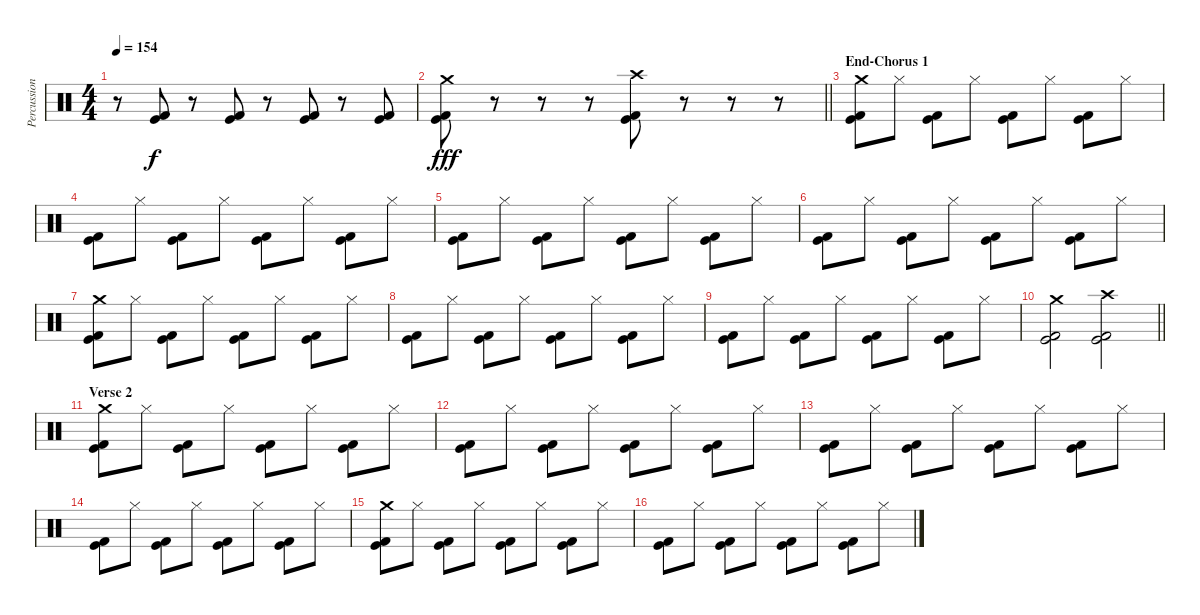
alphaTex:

\track ("Percussion" "Percussion") {instrument percussion}
\staff {score}
\articulation defaults
\ts (4 4)
\tempo 154
\clef neutral
\ks c
r.8{dy fff} ("Kick (hit)" "Kick (hit) 2").8{dy f} r.8 ("Kick (hit)" "Kick (hit) 2").8 r.8 ("Kick (hit)" "Kick (hit) 2").8 r.8 ("Kick (hit)" "Kick (hit) 2").8 |
\barLineRight lightlight
("Crash medium (hit)" "Kick (hit)" "Kick (hit) 2").8{dy fff} r.8 r.8 r.8 ("Crash high (hit)" "Kick (hit)" "Kick (hit) 2").8 r.8 r.8 r.8 |
\section ("" "End-Chorus 1")
("Crash medium (hit)" "Kick (hit)" "Kick (hit) 2").8 "Hi-Hat (closed)".8 ("Kick (hit)" "Kick (hit) 2").8 "Hi-Hat (closed)".8 ("Kick (hit)" "Kick (hit) 2").8 "Hi-Hat (closed)".8 ("Kick (hit)" "Kick (hit) 2").8 "Hi-Hat (closed)".8 |
("Kick (hit)" "Kick (hit) 2").8 "Hi-Hat (closed)".8 ("Kick (hit)" "Kick (hit) 2").8 "Hi-Hat (closed)".8 ("Kick (hit)" "Kick (hit) 2").8 "Hi-Hat (closed)".8 ("Kick (hit)" "Kick (hit) 2").8 "Hi-Hat (closed)".8 |
("Kick (hit)" "Kick (hit) 2").8 "Hi-Hat (closed)".8 ("Kick (hit)" "Kick (hit) 2").8 "Hi-Hat (closed)".8 ("Kick (hit)" "Kick (hit) 2").8 "Hi-Hat (closed)".8 ("Kick (hit)" "Kick (hit) 2").8 "Hi-Hat (closed)".8 |
("Kick (hit)" "Kick (hit) 2").8 "Hi-Hat (closed)".8 ("Kick (hit)" "Kick (hit) 2").8 "Hi-Hat (closed)".8 ("Kick (hit)" "Kick (hit) 2").8 "Hi-Hat (closed)".8 ("Kick (hit)" "Kick (hit) 2").8 "Hi-Hat (closed)".8 |
("Crash medium (hit)" "Kick (hit)" "Kick (hit) 2").8 "Hi-Hat (closed)".8 ("Kick (hit)" "Kick (hit) 2").8 "Hi-Hat (closed)".8 ("Kick (hit)" "Kick (hit) 2").8 "Hi-Hat (closed)".8 ("Kick (hit)" "Kick (hit) 2").8 "Hi-Hat (closed)".8 |
("Kick (hit)" "Kick (hit) 2").8 "Hi-Hat (closed)".8 ("Kick (hit)" "Kick (hit) 2").8 "Hi-Hat (closed)".8 ("Kick (hit)" "Kick (hit) 2").8 "Hi-Hat (closed)".8 ("Kick (hit)" "Kick (hit) 2").8 "Hi-Hat (closed)".8 |
("Kick (hit)" "Kick (hit) 2").8 "Hi-Hat (closed)".8 ("Kick (hit)" "Kick (hit) 2").8 "Hi-Hat (closed)".8 ("Kick (hit)" "Kick (hit) 2").8 "Hi-Hat (closed)".8 ("Kick (hit)" "Kick (hit) 2").8 "Hi-Hat (closed)".8 |
\barLineRight lightlight
("Crash medium (hit)" "Kick (hit)" "Kick (hit) 2").2 ("Crash high (hit)" "Kick (hit)" "Kick (hit) 2").2 |
\section ("" "Verse 2")
("Crash medium (hit)" "Kick (hit)" "Kick (hit) 2").8 "Hi-Hat (closed)".8 ("Kick (hit)" "Kick (hit) 2").8 "Hi-Hat (closed)".8 ("Kick (hit)" "Kick (hit) 2").8 "Hi-Hat (closed)".8 ("Kick (hit)" "Kick (hit) 2").8 "Hi-Hat (closed)".8 |
("Kick (hit)" "Kick (hit) 2").8 "Hi-Hat (closed)".8 ("Kick (hit)" "Kick (hit) 2").8 "Hi-Hat (closed)".8 ("Kick (hit)" "Kick (hit) 2").8 "Hi-Hat (closed)".8 ("Kick (hit)" "Kick (hit) 2").8 "Hi-Hat (closed)".8 |
("Kick (hit)" "Kick (hit) 2").8 "Hi-Hat (closed)".8 ("Kick (hit)" "Kick (hit) 2").8 "Hi-Hat (closed)".8 ("Kick (hit)" "Kick (hit) 2").8 "Hi-Hat (closed)".8 ("Kick (hit)" "Kick (hit) 2").8 "Hi-Hat (closed)".8 |
("Kick (hit)" "Kick (hit) 2").8 "Hi-Hat (closed)".8 ("Kick (hit)" "Kick (hit) 2").8 "Hi-Hat (closed)".8 ("Kick (hit)" "Kick (hit) 2").8 "Hi-Hat (closed)".8 ("Kick (hit)" "Kick (hit) 2").8 "Hi-Hat (closed)".8 |
("Crash medium (hit)" "Kick (hit)" "Kick (hit) 2").8 "Hi-Hat (closed)".8 ("Kick (hit)" "Kick (hit) 2").8 "Hi-Hat (closed)".8 ("Kick (hit)" "Kick (hit) 2").8 "Hi-Hat (closed)".8 ("Kick (hit)" "Kick (hit) 2").8 "Hi-Hat (closed)".8 |
("Kick (hit)" "Kick (hit) 2").8 "Hi-Hat (closed)".8 ("Kick (hit)" "Kick (hit) 2").8 "Hi-Hat (closed)".8 ("Kick (hit)" "Kick (hit) 2").8 "Hi-Hat (closed)".8 ("Kick (hit)" "Kick (hit) 2").8 "Hi-Hat (closed)".8
